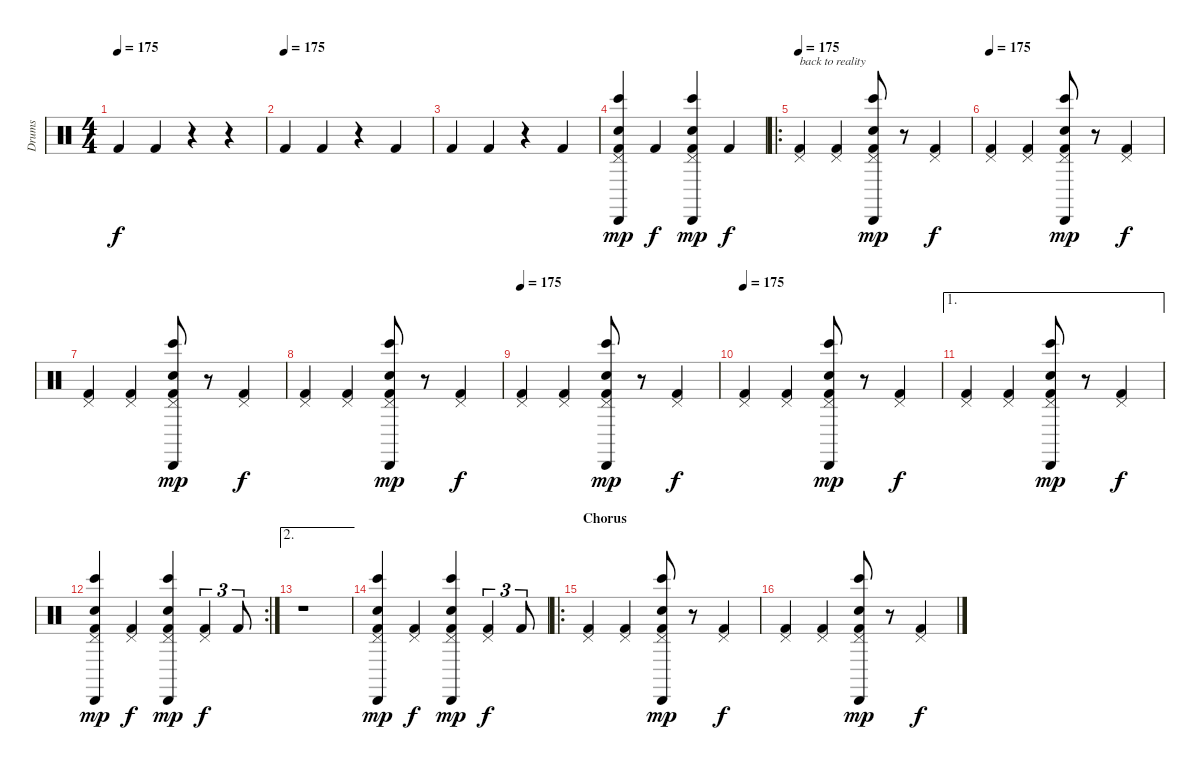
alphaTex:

\track ("Drums" "Drums") {instrument percussion}
\staff {score}
\articulation defaults
\ts (4 4)
\tempo 175
\clef neutral
\ks c "Kick (hit) 2".4{dy f} "Kick (hit) 2".4
r.4 r.4 |
\tempo (175)
"Kick (hit) 2".4 "Kick (hit) 2".4 r.4 "Kick (hit) 2".4 |
"Kick (hit) 2".4 "Kick (hit) 2".4 r.4 "Kick (hit) 2".4 |
("Cabasa (hit)" "Bongo High (hit)" "Pedal Hi-Hat (hit)" "Snare (hit) 2" "Kick (hit) 2").4{dy mp} "Kick (hit) 2".4{dy f} ("Cabasa (hit)" "Bongo High (hit)" "Pedal Hi-Hat (hit)" "Snare (hit) 2" "Kick (hit) 2").4{dy mp} "Kick (hit) 2".4{dy f} |
\ro
\tempo 175
("Pedal Hi-Hat (hit)" "Kick (hit) 2").4{txt "back to reality"} ("Pedal Hi-Hat (hit)" "Kick (hit) 2").4 ("Cabasa (hit)" "Bongo High (hit)" "Pedal Hi-Hat (hit)" "Snare (hit) 2" "Kick (hit) 2").8{dy mp} r.8{volume 0} ("Pedal Hi-Hat (hit)" "Kick (hit) 2").4{dy f volume 14} |
\tempo 175
("Pedal Hi-Hat (hit)" "Kick (hit) 2").4 ("Pedal Hi-Hat (hit)" "Kick (hit) 2").4 ("Cabasa (hit)" "Bongo High (hit)" "Pedal Hi-Hat (hit)" "Snare (hit) 2" "Kick (hit) 2").8{dy mp} r.8{volume 0} ("Pedal Hi-Hat (hit)" "Kick (hit) 2").4{dy f volume 14} |
("Pedal Hi-Hat (hit)" "Kick (hit) 2").4 ("Pedal Hi-Hat (hit)" "Kick (hit) 2").4 ("Cabasa (hit)" "Bongo High (hit)" "Pedal Hi-Hat (hit)" "Snare (hit) 2" "Kick (hit) 2").8{dy mp} r.8{volume 0} ("Pedal Hi-Hat (hit)" "Kick (hit) 2").4{dy f volume 14} |
("Pedal Hi-Hat (hit)" "Kick (hit) 2").4 ("Pedal Hi-Hat (hit)" "Kick (hit) 2").4 ("Cabasa (hit)" "Bongo High (hit)" "Pedal Hi-Hat (hit)" "Snare (hit) 2" "Kick (hit) 2").8{dy mp} r.8{volume 0} ("Pedal Hi-Hat (hit)" "Kick (hit) 2").4{dy f volume 14} |
\tempo 175
("Pedal Hi-Hat (hit)" "Kick (hit) 2").4 ("Pedal Hi-Hat (hit)" "Kick (hit) 2").4 ("Cabasa (hit)" "Bongo High (hit)" "Pedal Hi-Hat (hit)" "Snare (hit) 2" "Kick (hit) 2").8{dy mp} r.8{volume 0} ("Pedal Hi-Hat (hit)" "Kick (hit) 2").4{dy f volume 14} |
\tempo 175
("Pedal Hi-Hat (hit)" "Kick (hit) 2").4 ("Pedal Hi-Hat (hit)" "Kick (hit) 2").4 ("Cabasa (hit)" "Bongo High (hit)" "Pedal Hi-Hat (hit)" "Snare (hit) 2" "Kick (hit) 2").8{dy mp} r.8{volume 0} ("Pedal Hi-Hat (hit)" "Kick (hit) 2").4{dy f volume 14} |
\ae 1
("Pedal Hi-Hat (hit)" "Kick (hit) 2").4 ("Pedal Hi-Hat (hit)" "Kick (hit) 2").4 ("Cabasa (hit)" "Bongo High (hit)" "Pedal Hi-Hat (hit)" "Snare (hit) 2" "Kick (hit) 2").8{dy mp} r.8{volume 0} ("Pedal Hi-Hat (hit)" "Kick (hit) 2").4{dy f volume 14} |
\rc 2
("Cabasa (hit)" "Bongo High (hit)" "Pedal Hi-Hat (hit)" "Snare (hit) 2" "Kick (hit) 2").4{dy mp} ("Pedal Hi-Hat (hit)" "Kick (hit) 2").4{dy f} ("Cabasa (hit)" "Bongo High (hit)" "Pedal Hi-Hat (hit)" "Snare (hit) 2" "Kick (hit) 2").4{dy mp} ("Pedal Hi-Hat (hit)" "Kick (hit) 2").4{tu (3 2) dy f} "Kick (hit) 2".8{tu (3 2)} |
\ae 2
r.1 |
("Cabasa (hit)" "Bongo High (hit)" "Pedal Hi-Hat (hit)" "Snare (hit) 2" "Kick (hit) 2").4{dy mp} ("Pedal Hi-Hat (hit)" "Kick (hit) 2").4{dy f} ("Cabasa (hit)" "Bongo High (hit)" "Pedal Hi-Hat (hit)" "Snare (hit) 2" "Kick (hit) 2").4{dy mp} ("Pedal Hi-Hat (hit)" "Kick (hit) 2").4{tu (3 2) dy f} "Kick (hit) 2".8{tu (3 2)} |
\ro
\section ("" "Chorus")
("Pedal Hi-Hat (hit)" "Kick (hit) 2").4 ("Pedal Hi-Hat (hit)" "Kick (hit) 2").4 ("Cabasa (hit)" "Bongo High (hit)" "Pedal Hi-Hat (hit)" "Snare (hit) 2" "Kick (hit) 2").8{dy mp} r.8{volume 0} ("Pedal Hi-Hat (hit)" "Kick (hit) 2").4{dy f volume 14} |
("Pedal Hi-Hat (hit)" "Kick (hit) 2").4 ("Pedal Hi-Hat (hit)" "Kick (hit) 2").4 ("Cabasa (hit)" "Bongo High (hit)" "Pedal Hi-Hat (hit)" "Snare (hit) 2" "Kick (hit) 2").8{dy mp} r.8{volume 0} ("Pedal Hi-Hat (hit)" "Kick (hit) 2").4{dy f volume 14}
